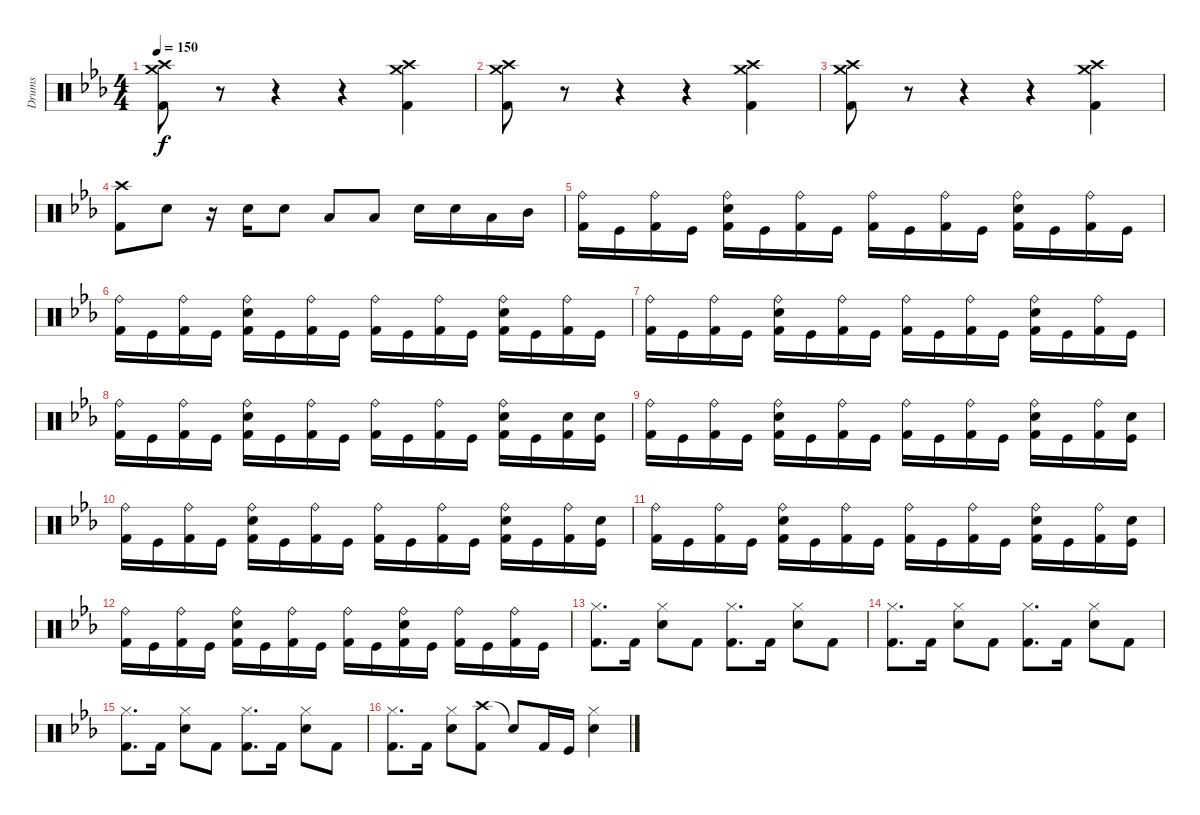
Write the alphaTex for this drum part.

\track ("Drums" "Drums") {instrument percussion}
\staff {score}
\articulation defaults
\ts (4 4)
\tempo 150
\clef neutral
\ks eb
("Crash high (hit)" "Crash medium (hit)" "Kick (hit) 2").8{dy f} r.8 r.4 r.4 ("Crash high (hit)" "Crash medium (hit)" "Kick (hit) 2").4 |
("Crash high (hit)" "Crash medium (hit)" "Kick (hit) 2").8 r.8 r.4 r.4 ("Crash high (hit)" "Crash medium (hit)" "Kick (hit) 2").4 |
("Crash high (hit)" "Crash medium (hit)" "Kick (hit) 2").8 r.8 r.4 r.4 ("Crash high (hit)" "Crash medium (hit)" "Kick (hit) 2").4 |
("Crash high (hit)" "Kick (hit) 2").8 "Electric Snare (hit)".8 r.16 "Electric Snare (hit)".16 "Electric Snare (hit)".8 "Low Tom (hit)".8 "Low Tom (hit)".8 "Electric Snare (hit)".16 "Electric Snare (hit)".16 "Low Tom (hit)".16 "Mid Tom (hit)".16 |
("Ride (bell)" "Kick (hit) 2").16 "Kick (hit)".16 ("Ride (bell)" "Kick (hit) 2").16 "Kick (hit)".16 ("Ride (bell)" "Electric Snare (hit)" "Kick (hit) 2").16 "Kick (hit)".16 ("Ride (bell)" "Kick (hit) 2").16 "Kick (hit)".16 ("Ride (bell)" "Kick (hit) 2").16 "Kick (hit)".16 ("Ride (bell)" "Kick (hit) 2").16 "Kick (hit)".16 ("Ride (bell)" "Electric Snare (hit)" "Kick (hit) 2").16 "Kick (hit)".16 ("Ride (bell)" "Kick (hit) 2").16 "Kick (hit)".16 |
("Ride (bell)" "Kick (hit) 2").16 "Kick (hit)".16 ("Ride (bell)" "Kick (hit) 2").16 "Kick (hit)".16 ("Ride (bell)" "Electric Snare (hit)" "Kick (hit) 2").16 "Kick (hit)".16 ("Ride (bell)" "Kick (hit) 2").16 "Kick (hit)".16 ("Ride (bell)" "Kick (hit) 2").16 "Kick (hit)".16 ("Ride (bell)" "Kick (hit) 2").16 "Kick (hit)".16 ("Ride (bell)" "Electric Snare (hit)" "Kick (hit) 2").16 "Kick (hit)".16 ("Ride (bell)" "Kick (hit) 2").16 "Kick (hit)".16 |
("Ride (bell)" "Kick (hit) 2").16 "Kick (hit)".16 ("Ride (bell)" "Kick (hit) 2").16 "Kick (hit)".16 ("Ride (bell)" "Electric Snare (hit)" "Kick (hit) 2").16 "Kick (hit)".16 ("Ride (bell)" "Kick (hit) 2").16 "Kick (hit)".16 ("Ride (bell)" "Kick (hit) 2").16 "Kick (hit)".16 ("Ride (bell)" "Kick (hit) 2").16 "Kick (hit)".16 ("Ride (bell)" "Electric Snare (hit)" "Kick (hit) 2").16 "Kick (hit)".16 ("Ride (bell)" "Kick (hit) 2").16 "Kick (hit)".16 |
("Ride (bell)" "Kick (hit) 2").16 "Kick (hit)".16 ("Ride (bell)" "Kick (hit) 2").16 "Kick (hit)".16 ("Ride (bell)" "Electric Snare (hit)" "Kick (hit) 2").16 "Kick (hit)".16 ("Ride (bell)" "Kick (hit) 2").16 "Kick (hit)".16 ("Ride (bell)" "Kick (hit) 2").16 "Kick (hit)".16 ("Ride (bell)" "Kick (hit) 2").16 "Kick (hit)".16 ("Ride (bell)" "Electric Snare (hit)" "Kick (hit) 2").16 "Kick (hit)".16 ("Electric Snare (hit)" "Kick (hit) 2").16 ("Electric Snare (hit)" "Kick (hit)").16 |
("Ride (bell)" "Kick (hit) 2").16 "Kick (hit)".16 ("Ride (bell)" "Kick (hit) 2").16 "Kick (hit)".16 ("Ride (bell)" "Electric Snare (hit)" "Kick (hit) 2").16 "Kick (hit)".16 ("Ride (bell)" "Kick (hit) 2").16 "Kick (hit)".16 ("Ride (bell)" "Kick (hit) 2").16 "Kick (hit)".16 ("Ride (bell)" "Kick (hit) 2").16 "Kick (hit)".16 ("Ride (bell)" "Electric Snare (hit)" "Kick (hit) 2").16 "Kick (hit)".16 ("Ride (bell)" "Kick (hit) 2").16 ("Electric Snare (hit)" "Kick (hit)").16 |
("Ride (bell)" "Kick (hit) 2").16 "Kick (hit)".16 ("Ride (bell)" "Kick (hit) 2").16 "Kick (hit)".16 ("Ride (bell)" "Electric Snare (hit)" "Kick (hit) 2").16 "Kick (hit)".16 ("Ride (bell)" "Kick (hit) 2").16 "Kick (hit)".16 ("Ride (bell)" "Kick (hit) 2").16 "Kick (hit)".16 ("Ride (bell)" "Kick (hit) 2").16 "Kick (hit)".16 ("Ride (bell)" "Electric Snare (hit)" "Kick (hit) 2").16 "Kick (hit)".16 ("Ride (bell)" "Kick (hit) 2").16 ("Electric Snare (hit)" "Kick (hit)").16 |
("Ride (bell)" "Kick (hit) 2").16 "Kick (hit)".16 ("Ride (bell)" "Kick (hit) 2").16 "Kick (hit)".16 ("Ride (bell)" "Electric Snare (hit)" "Kick (hit) 2").16 "Kick (hit)".16 ("Ride (bell)" "Kick (hit) 2").16 "Kick (hit)".16 ("Ride (bell)" "Kick (hit) 2").16 "Kick (hit)".16 ("Ride (bell)" "Kick (hit) 2").16 "Kick (hit)".16 ("Ride (bell)" "Electric Snare (hit)" "Kick (hit) 2").16 "Kick (hit)".16 ("Ride (bell)" "Kick (hit) 2").16 ("Electric Snare (hit)" "Kick (hit)").16 |
("Ride (bell)" "Kick (hit) 2").16 "Kick (hit)".16 ("Ride (bell)" "Kick (hit) 2").16 "Kick (hit)".16 ("Ride (bell)" "Electric Snare (hit)" "Kick (hit) 2").16 "Kick (hit)".16 ("Ride (bell)" "Kick (hit) 2").16 "Kick (hit)".16 ("Ride (bell)" "Kick (hit) 2").16 "Kick (hit)".16 ("Ride (bell)" "Electric Snare (hit)" "Kick (hit) 2").16 "Kick (hit)".16 ("Ride (bell)" "Kick (hit) 2").16 "Kick (hit)".16 ("Ride (bell)" "Kick (hit) 2").16 "Kick (hit)".16 |
("Hi-Hat (closed)" "Kick (hit) 2").8{d} "Kick (hit) 2".16 ("Hi-Hat (closed)" "Electric Snare (hit)").8 "Kick (hit) 2".8 ("Hi-Hat (closed)" "Kick (hit) 2").8{d} "Kick (hit) 2".16 ("Hi-Hat (closed)" "Electric Snare (hit)").8 "Kick (hit) 2".8 |
("Hi-Hat (closed)" "Kick (hit) 2").8{d} "Kick (hit) 2".16 ("Hi-Hat (closed)" "Electric Snare (hit)").8 "Kick (hit) 2".8 ("Hi-Hat (closed)" "Kick (hit) 2").8{d} "Kick (hit) 2".16 ("Hi-Hat (closed)" "Electric Snare (hit)").8 "Kick (hit) 2".8 |
("Hi-Hat (closed)" "Kick (hit) 2").8{d} "Kick (hit) 2".16 ("Hi-Hat (closed)" "Electric Snare (hit)").8 "Kick (hit) 2".8 ("Hi-Hat (closed)" "Kick (hit) 2").8{d} "Kick (hit) 2".16 ("Hi-Hat (closed)" "Electric Snare (hit)").8 "Kick (hit) 2".8 |
("Hi-Hat (closed)" "Kick (hit) 2").8{d} "Kick (hit) 2".16 ("Hi-Hat (closed)" "Electric Snare (hit)").8 ("Crash high (hit)" "Kick (hit) 2").8 "Snare (hit)"{t}.8 "Kick (hit) 2".16 "Kick (hit)".16 ("Hi-Hat (closed)" "Electric Snare (hit)").4
